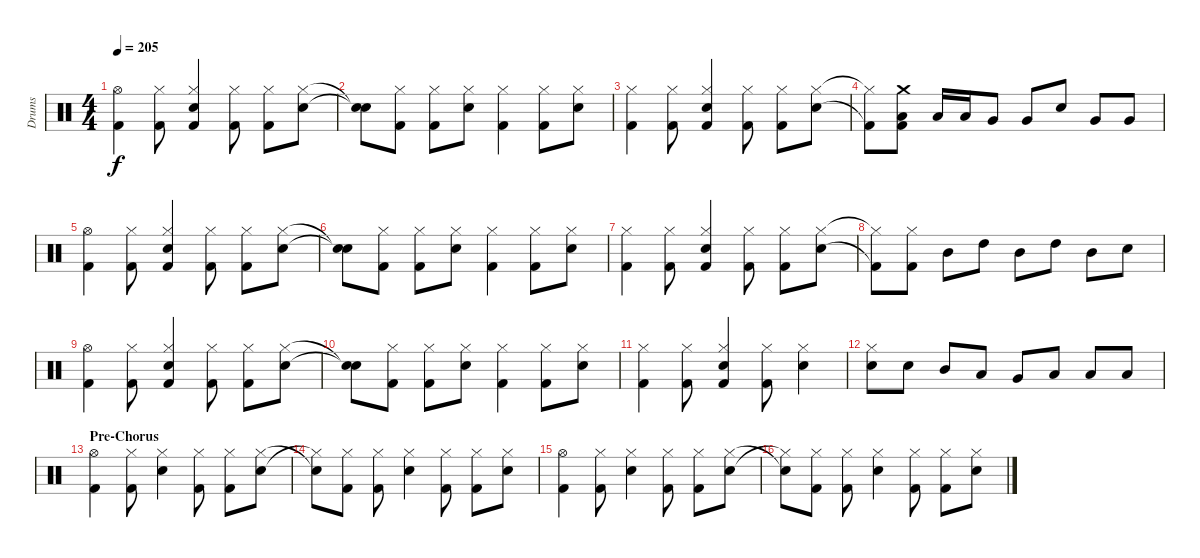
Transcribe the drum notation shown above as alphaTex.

\track ("Drums" "Drums") {instrument percussion}
\staff {score}
\articulation defaults
\ts (4 4)
\tempo 205
\clef neutral
\ks c
("Hi-Hat (open)" "Kick (hit) 2").4{dy f} ("Hi-Hat (closed)" "Kick (hit) 2").8 ("Electric Snare (hit)" "Hi-Hat (closed)" "Kick (hit) 2").4 ("Hi-Hat (closed)" "Kick (hit) 2").8 ("Hi-Hat (closed)" "Kick (hit) 2").8 ("Hi-Hat (closed)" "Electric Snare (hit)").8 |
("Snare (hit)"{t} "Snare (hit)"{t}).8 ("Hi-Hat (closed)" "Kick (hit) 2").8 ("Hi-Hat (closed)" "Kick (hit) 2").8 ("Hi-Hat (closed)" "Electric Snare (hit)").8 ("Hi-Hat (closed)" "Kick (hit) 2").4 ("Hi-Hat (closed)" "Kick (hit) 2").8 ("Electric Snare (hit)" "Hi-Hat (closed)").8 |
("Hi-Hat (closed)" "Kick (hit) 2").4 ("Hi-Hat (closed)" "Kick (hit) 2").8 ("Hi-Hat (closed)" "Electric Snare (hit)" "Kick (hit) 2").4 ("Hi-Hat (closed)" "Kick (hit) 2").8 ("Hi-Hat (closed)" "Kick (hit) 2").8 ("Hi-Hat (closed)" "Electric Snare (hit)").8 |
("Hi-Hat (closed)"{t} "Kick (hit) 2"{t}).8 ("Crash medium (hit)" "Low Tom (hit)" "Kick (hit) 2").8 "Low Tom (hit)".16 "Low Tom (hit)".16 "Very Low Tom (hit)".8 "Very Low Tom (hit)".8 "Electric Snare (hit)".8 "Very Low Tom (hit)".8 "Very Low Tom (hit)".8 |
("Hi-Hat (open)" "Kick (hit) 2").4 ("Hi-Hat (closed)" "Kick (hit) 2").8 ("Electric Snare (hit)" "Hi-Hat (closed)" "Kick (hit) 2").4 ("Hi-Hat (closed)" "Kick (hit) 2").8 ("Hi-Hat (closed)" "Kick (hit) 2").8 ("Hi-Hat (closed)" "Electric Snare (hit)").8 |
("Snare (hit)"{t} "Snare (hit)"{t}).8 ("Hi-Hat (closed)" "Kick (hit) 2").8 ("Hi-Hat (closed)" "Kick (hit) 2").8 ("Hi-Hat (closed)" "Electric Snare (hit)").8 ("Hi-Hat (closed)" "Kick (hit) 2").4 ("Hi-Hat (closed)" "Kick (hit) 2").8 ("Electric Snare (hit)" "Hi-Hat (closed)").8 |
("Hi-Hat (closed)" "Kick (hit) 2").4 ("Hi-Hat (closed)" "Kick (hit) 2").8 ("Hi-Hat (closed)" "Electric Snare (hit)" "Kick (hit) 2").4 ("Hi-Hat (closed)" "Kick (hit) 2").8 ("Hi-Hat (closed)" "Kick (hit) 2").8 ("Hi-Hat (closed)" "Electric Snare (hit)").8 |
("Hi-Hat (closed)"{t} "Kick (hit) 2"{t}).8 ("Hi-Hat (closed)" "Kick (hit) 2").8 "Mid Tom (hit)".8 "High Tom (hit)".8 "Mid Tom (hit)".8 "High Tom (hit)".8 "Mid Tom (hit)".8 "Electric Snare (hit)".8 |
("Hi-Hat (open)" "Kick (hit) 2").4 ("Hi-Hat (closed)" "Kick (hit) 2").8 ("Electric Snare (hit)" "Hi-Hat (closed)" "Kick (hit) 2").4 ("Hi-Hat (closed)" "Kick (hit) 2").8 ("Hi-Hat (closed)" "Kick (hit) 2").8 ("Hi-Hat (closed)" "Electric Snare (hit)").8 |
("Snare (hit)"{t} "Snare (hit)"{t}).8 ("Hi-Hat (closed)" "Kick (hit) 2").8 ("Hi-Hat (closed)" "Kick (hit) 2").8 ("Hi-Hat (closed)" "Electric Snare (hit)").8 ("Hi-Hat (closed)" "Kick (hit) 2").4 ("Hi-Hat (closed)" "Kick (hit) 2").8 ("Electric Snare (hit)" "Hi-Hat (closed)").8 |
("Hi-Hat (closed)" "Kick (hit) 2").4 ("Hi-Hat (closed)" "Kick (hit) 2").8 ("Hi-Hat (closed)" "Electric Snare (hit)" "Kick (hit) 2").4 ("Hi-Hat (closed)" "Kick (hit) 2").8 ("Electric Snare (hit)" "Hi-Hat (closed)").4 |
("Hi-Hat (closed)" "Electric Snare (hit)").8 "Electric Snare (hit)".8 "Mid Tom (hit)".8 "Low Tom (hit)".8 "Very Low Tom (hit)".8 "Low Floor Tom (hit)".8 "Low Floor Tom (hit)".8 "Low Floor Tom (hit)".8 |
\section ("" "Pre-Chorus")
("Hi-Hat (open)" "Kick (hit) 2").4 ("Hi-Hat (closed)" "Kick (hit) 2").8 ("Hi-Hat (closed)" "Electric Snare (hit)").4 ("Hi-Hat (closed)" "Kick (hit) 2").8 ("Hi-Hat (closed)" "Kick (hit) 2").8 ("Hi-Hat (closed)" "Electric Snare (hit)").8 |
("Snare (hit)"{t} "Hi-Hat (closed)"{t}).8 ("Hi-Hat (closed)" "Kick (hit) 2").8 ("Hi-Hat (closed)" "Kick (hit) 2").8 ("Hi-Hat (closed)" "Electric Snare (hit)").4 ("Hi-Hat (closed)" "Kick (hit) 2").8 ("Hi-Hat (closed)" "Kick (hit) 2").8 ("Hi-Hat (closed)" "Electric Snare (hit)").8 |
("Hi-Hat (open)" "Kick (hit) 2").4 ("Hi-Hat (closed)" "Kick (hit) 2").8 ("Hi-Hat (closed)" "Electric Snare (hit)").4 ("Hi-Hat (closed)" "Kick (hit) 2").8 ("Hi-Hat (closed)" "Kick (hit) 2").8 ("Hi-Hat (closed)" "Electric Snare (hit)").8 |
("Snare (hit)"{t} "Hi-Hat (closed)"{t}).8 ("Hi-Hat (closed)" "Kick (hit) 2").8 ("Hi-Hat (closed)" "Kick (hit) 2").8 ("Hi-Hat (closed)" "Electric Snare (hit)").4 ("Hi-Hat (closed)" "Kick (hit) 2").8 ("Hi-Hat (closed)" "Kick (hit) 2").8 ("Hi-Hat (closed)" "Electric Snare (hit)").8
